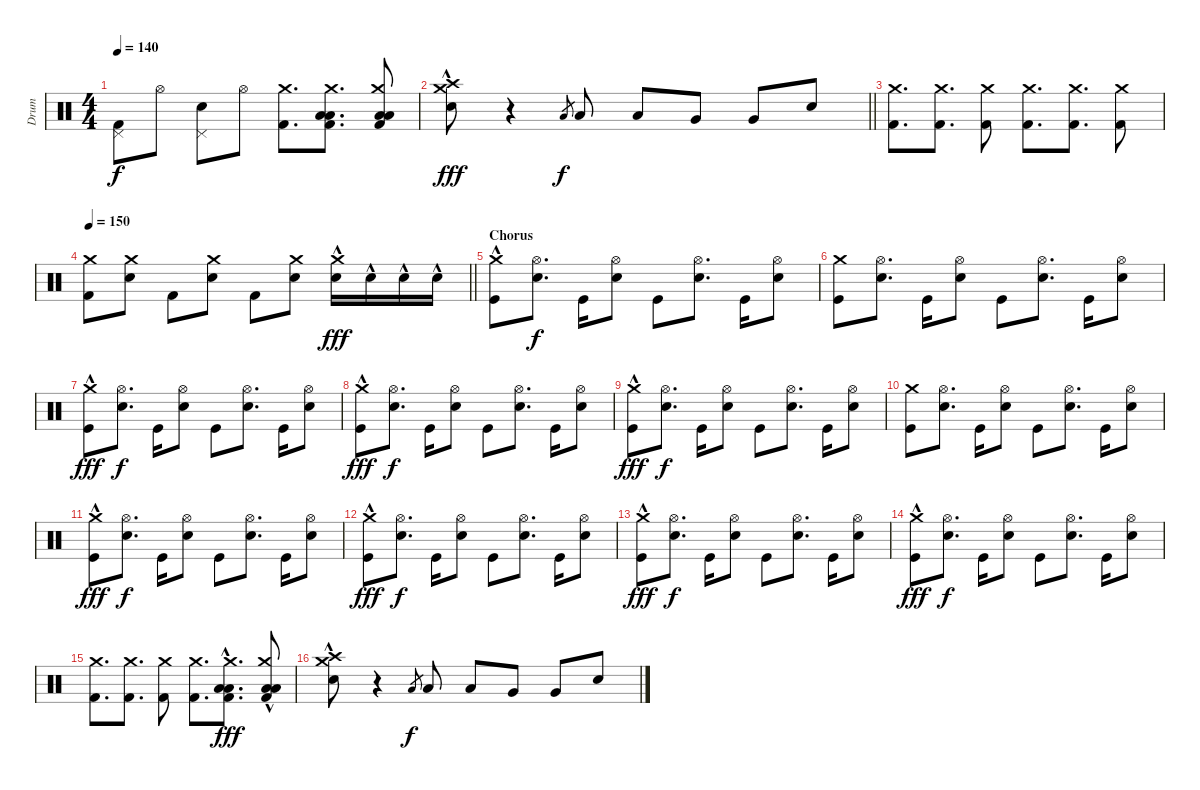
\track ("Drum" "Drum") {instrument percussion}
\staff {score}
\articulation defaults
\ts (4 4)
\tempo 140
\clef neutral
\ks c
("Pedal Hi-Hat (hit)" "Kick (hit) 2").8{dy f} "Hi-Hat (open)".8 ("Pedal Hi-Hat (hit)" "Electric Snare (hit)").8 "Hi-Hat (open)".8 ("Crash medium (hit)" "Kick (hit) 2").8{d} ("Crash medium (hit)" "Low Tom (hit)" "Low Tom (hit)" "Kick (hit) 2").8{d} ("Crash medium (hit)" "Low Tom (hit)" "Low Tom (hit)" "Kick (hit) 2").8 |
\barLineRight lightlight
("Crash medium (hit)" "Crash high (hit)" "Electric Snare (hit)"{hac}).8{dy fff} r.4 "Low Tom (hit)".8{gr dy f} "Low Tom (hit)".8 "Low Tom (hit)".8 "Very Low Tom (hit)".8 "Very Low Tom (hit)".8 "Electric Snare (hit)".8 |
("Crash medium (hit)" "Kick (hit) 2").8{d} ("Crash medium (hit)" "Kick (hit) 2").8{d} ("Crash medium (hit)" "Kick (hit) 2").8 ("Crash medium (hit)" "Kick (hit) 2").8{d} ("Crash medium (hit)" "Kick (hit) 2").8{d} ("Crash medium (hit)" "Kick (hit) 2").8 |
\tempo 150
\barLineRight lightlight
("Crash medium (hit)" "Kick (hit) 2").8 ("Crash medium (hit)" "Electric Snare (hit)").8 "Kick (hit) 2".8 ("Crash medium (hit)" "Electric Snare (hit)").8 "Kick (hit) 2".8 ("Crash medium (hit)" "Electric Snare (hit)").8 ("Crash medium (hit)" "Electric Snare (hit)"{hac}).16{dy fff} "Electric Snare (hit)"{hac}.16 "Electric Snare (hit)"{hac}.16 "Electric Snare (hit)"{hac}.16 |
\section ("" "Chorus")
("Crash medium (hit)"{hac} "Kick (hit)").8 ("Hi-Hat (open)" "Electric Snare (hit)").8{d dy f} "Kick (hit)".16 ("Hi-Hat (open)" "Electric Snare (hit)").8 "Kick (hit)".8 ("Hi-Hat (open)" "Electric Snare (hit)").8{d} "Kick (hit)".16 ("Hi-Hat (open)" "Electric Snare (hit)").8 |
("Crash medium (hit)" "Kick (hit)").8 ("Hi-Hat (open)" "Electric Snare (hit)").8{d} "Kick (hit)".16 ("Hi-Hat (open)" "Electric Snare (hit)").8 "Kick (hit)".8 ("Hi-Hat (open)" "Electric Snare (hit)").8{d} "Kick (hit)".16 ("Hi-Hat (open)" "Electric Snare (hit)").8 |
("Crash medium (hit)"{hac} "Kick (hit)").8{dy fff} ("Hi-Hat (open)" "Electric Snare (hit)").8{d dy f} "Kick (hit)".16 ("Hi-Hat (open)" "Electric Snare (hit)").8 "Kick (hit)".8 ("Hi-Hat (open)" "Electric Snare (hit)").8{d} "Kick (hit)".16 ("Hi-Hat (open)" "Electric Snare (hit)").8 |
("Crash medium (hit)"{hac} "Kick (hit)").8{dy fff} ("Hi-Hat (open)" "Electric Snare (hit)").8{d dy f} "Kick (hit)".16 ("Hi-Hat (open)" "Electric Snare (hit)").8 "Kick (hit)".8 ("Hi-Hat (open)" "Electric Snare (hit)").8{d} "Kick (hit)".16 ("Hi-Hat (open)" "Electric Snare (hit)").8 |
("Crash medium (hit)"{hac} "Kick (hit)").8{dy fff} ("Hi-Hat (open)" "Electric Snare (hit)").8{d dy f} "Kick (hit)".16 ("Hi-Hat (open)" "Electric Snare (hit)").8 "Kick (hit)".8 ("Hi-Hat (open)" "Electric Snare (hit)").8{d} "Kick (hit)".16 ("Hi-Hat (open)" "Electric Snare (hit)").8 |
("Crash medium (hit)" "Kick (hit)").8 ("Hi-Hat (open)" "Electric Snare (hit)").8{d} "Kick (hit)".16 ("Hi-Hat (open)" "Electric Snare (hit)").8 "Kick (hit)".8 ("Hi-Hat (open)" "Electric Snare (hit)").8{d} "Kick (hit)".16 ("Hi-Hat (open)" "Electric Snare (hit)").8 |
("Crash medium (hit)"{hac} "Kick (hit)").8{dy fff} ("Hi-Hat (open)" "Electric Snare (hit)").8{d dy f} "Kick (hit)".16 ("Hi-Hat (open)" "Electric Snare (hit)").8 "Kick (hit)".8 ("Hi-Hat (open)" "Electric Snare (hit)").8{d} "Kick (hit)".16 ("Hi-Hat (open)" "Electric Snare (hit)").8 |
("Crash medium (hit)"{hac} "Kick (hit)").8{dy fff} ("Hi-Hat (open)" "Electric Snare (hit)").8{d dy f} "Kick (hit)".16 ("Hi-Hat (open)" "Electric Snare (hit)").8 "Kick (hit)".8 ("Hi-Hat (open)" "Electric Snare (hit)").8{d} "Kick (hit)".16 ("Hi-Hat (open)" "Electric Snare (hit)").8 |
("Crash medium (hit)"{hac} "Kick (hit)").8{dy fff} ("Hi-Hat (open)" "Electric Snare (hit)").8{d dy f} "Kick (hit)".16 ("Hi-Hat (open)" "Electric Snare (hit)").8 "Kick (hit)".8 ("Hi-Hat (open)" "Electric Snare (hit)").8{d} "Kick (hit)".16 ("Hi-Hat (open)" "Electric Snare (hit)").8 |
("Crash medium (hit)"{hac} "Kick (hit)").8{dy fff} ("Hi-Hat (open)" "Electric Snare (hit)").8{d dy f} "Kick (hit)".16 ("Hi-Hat (open)" "Electric Snare (hit)").8 "Kick (hit)".8 ("Hi-Hat (open)" "Electric Snare (hit)").8{d} "Kick (hit)".16 ("Hi-Hat (open)" "Electric Snare (hit)").8 |
("Crash medium (hit)" "Kick (hit) 2").8{d} ("Crash medium (hit)" "Kick (hit) 2").8{d} ("Crash medium (hit)" "Kick (hit) 2").8 ("Crash medium (hit)" "Kick (hit) 2").8{d} ("Crash medium (hit)" "Low Tom (hit)" "Low Tom (hit)"{hac} "Kick (hit) 2").8{d dy fff} ("Crash medium (hit)" "Low Tom (hit)" "Low Tom (hit)"{hac} "Kick (hit) 2").8 |
("Crash medium (hit)" "Crash high (hit)" "Electric Snare (hit)"{hac}).8 r.4 "Low Tom (hit)".8{gr dy f} "Low Tom (hit)".8 "Low Tom (hit)".8 "Very Low Tom (hit)".8 "Very Low Tom (hit)".8 "Electric Snare (hit)".8
